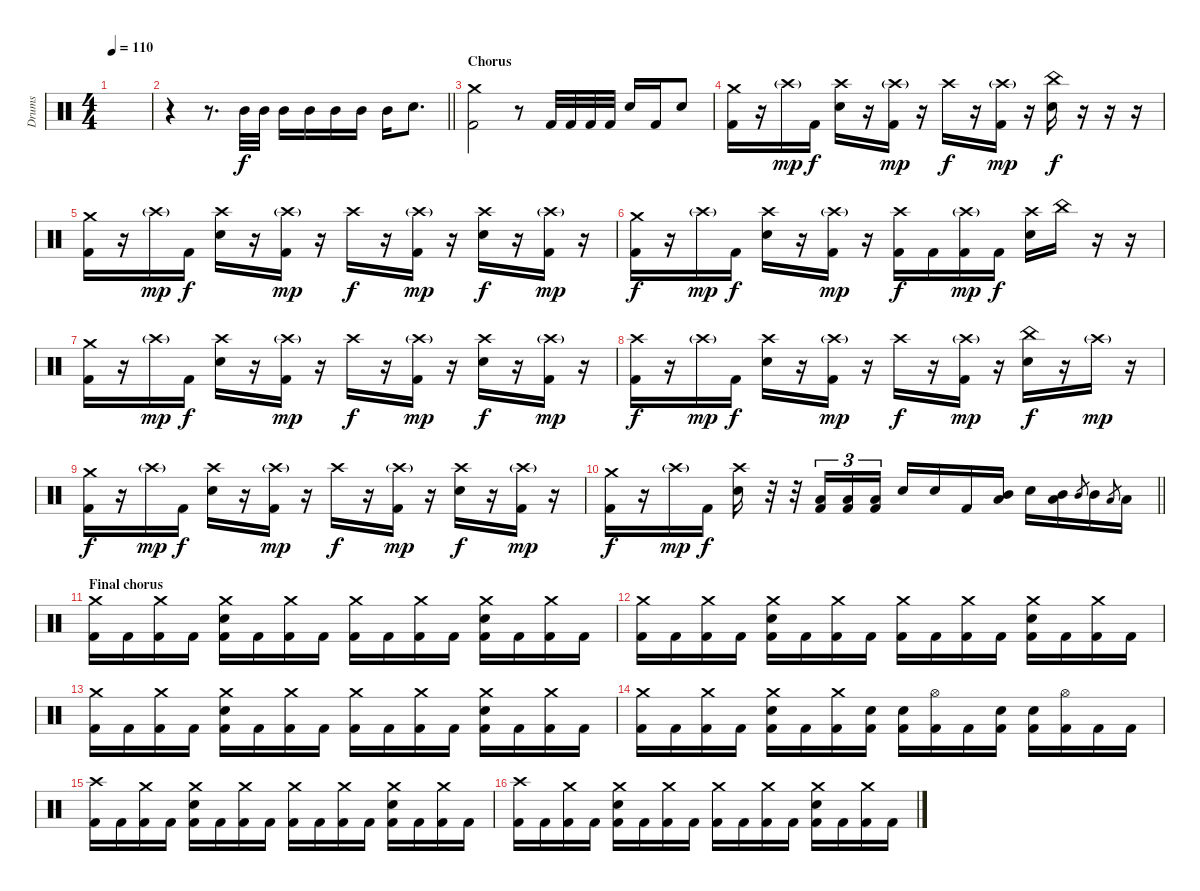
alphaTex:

\track ("Drums" "Drums") {instrument percussion}
\staff {score}
\articulation defaults
\ts (4 4)
\tempo 110
\clef neutral
\ks c
|
\barLineRight lightlight
r.4 r.8{d} "Mid Tom (hit)".32 "Mid Tom (hit)".32 "Mid Tom (hit)".16 "Mid Tom (hit)".16 "Mid Tom (hit)".16 "Mid Tom (hit)".16 "Mid Tom (hit)".16 "Electric Snare (hit)".8{d} |
\section ("" "Chorus")
("Crash medium (hit)" "Kick (hit) 2").2 r.8 "Kick (hit) 2".32 "Kick (hit) 2".32 "Kick (hit) 2".32 "Kick (hit) 2".32 "Electric Snare (hit)".16 "Kick (hit) 2".16 "Electric Snare (hit)".8 |
("Crash medium (hit)" "Kick (hit) 2").16 r.16 "Crash high (hit)"{g}.16{dy mp} "Kick (hit) 2".16{dy f} ("Electric Snare (hit)" "Crash high (hit)").16 r.16 ("Crash high (hit)"{g} "Kick (hit) 2").16{dy mp} r.16 "Crash high (hit)".16{dy f} r.16 ("Crash high (hit)"{g} "Kick (hit) 2").16{dy mp} r.16 ("Electric Snare (hit)" "China (hit)").16{dy f} r.16 r.16 r.16 |
("Crash medium (hit)" "Kick (hit) 2").16 r.16 "Crash high (hit)"{g}.16{dy mp} "Kick (hit) 2".16{dy f} ("Electric Snare (hit)" "Crash high (hit)").16 r.16 ("Crash high (hit)"{g} "Kick (hit) 2").16{dy mp} r.16 "Crash high (hit)".16{dy f} r.16 ("Crash high (hit)"{g} "Kick (hit) 2").16{dy mp} r.16 ("Electric Snare (hit)" "Crash high (hit)").16{dy f} r.16 ("Crash high (hit)"{g} "Kick (hit) 2").16{dy mp} r.16 |
("Crash medium (hit)" "Kick (hit) 2").16{dy f} r.16 "Crash high (hit)"{g}.16{dy mp} "Kick (hit) 2".16{dy f} ("Electric Snare (hit)" "Crash high (hit)").16 r.16 ("Crash high (hit)"{g} "Kick (hit) 2").16{dy mp} r.16 ("Kick (hit) 2" "Crash high (hit)").16{dy f} "Kick (hit) 2".16 ("Crash high (hit)"{g} "Kick (hit) 2").16{dy mp} "Kick (hit) 2".16{dy f} ("Electric Snare (hit)" "Crash high (hit)").16 "China (hit)".16 r.16 r.16 |
("Crash medium (hit)" "Kick (hit) 2").16 r.16 "Crash high (hit)"{g}.16{dy mp} "Kick (hit) 2".16{dy f} ("Electric Snare (hit)" "Crash high (hit)").16 r.16 ("Crash high (hit)"{g} "Kick (hit) 2").16{dy mp} r.16 "Crash high (hit)".16{dy f} r.16 ("Crash high (hit)"{g} "Kick (hit) 2").16{dy mp} r.16 ("Electric Snare (hit)" "Crash high (hit)").16{dy f} r.16 ("Crash high (hit)"{g} "Kick (hit) 2").16{dy mp} r.16 |
("Crash high (hit)" "Kick (hit) 2").16{dy f} r.16 "Crash high (hit)"{g}.16{dy mp} "Kick (hit) 2".16{dy f} ("Electric Snare (hit)" "Crash high (hit)").16 r.16 ("Crash high (hit)"{g} "Kick (hit) 2").16{dy mp} r.16 "Crash high (hit)".16{dy f} r.16 ("Crash high (hit)"{g} "Kick (hit) 2").16{dy mp} r.16 ("Electric Snare (hit)" "China (hit)").16{dy f} r.16 "Crash high (hit)"{g}.16{dy mp} r.16 |
("Crash medium (hit)" "Kick (hit) 2").16{dy f} r.16 "Crash high (hit)"{g}.16{dy mp} "Kick (hit) 2".16{dy f} ("Electric Snare (hit)" "Crash high (hit)").16 r.16 ("Crash high (hit)"{g} "Kick (hit) 2").16{dy mp} r.16 "Crash high (hit)".16{dy f} r.16 ("Crash high (hit)"{g} "Kick (hit) 2").16{dy mp} r.16 ("Electric Snare (hit)" "Crash high (hit)").16{dy f} r.16 ("Crash high (hit)"{g} "Kick (hit) 2").16{dy mp} r.16 |
\barLineRight lightlight
("Crash medium (hit)" "Kick (hit) 2").16{dy f} r.16 "Crash high (hit)"{g}.16{dy mp} "Kick (hit) 2".16{dy f} ("Electric Snare (hit)" "Crash high (hit)").16 r.32 r.32 ("Kick (hit) 2" "Low Tom (hit)").16{tu (3 2)} ("Kick (hit) 2" "Low Tom (hit)").16{tu (3 2)} ("Kick (hit) 2" "Low Tom (hit)").16{tu (3 2)} "Electric Snare (hit)".16 "Electric Snare (hit)".16 "Kick (hit) 2".16 ("Low Tom (hit)" "Mid Tom (hit)").16 "Electric Snare (hit)".16 ("Low Tom (hit)" "Mid Tom (hit)").16 "Mid Tom (hit)".8{gr} "Mid Tom (hit)".16 "Low Tom (hit)".8{gr} "Low Tom (hit)".16 |
\section ("" "Final chorus")
("Kick (hit) 2" "Crash medium (hit)").16 "Kick (hit) 2".16 ("Kick (hit) 2" "Crash medium (hit)").16 "Kick (hit) 2".16 ("Kick (hit) 2" "Electric Snare (hit)" "Crash medium (hit)").16 "Kick (hit) 2".16 ("Kick (hit) 2" "Crash medium (hit)").16 "Kick (hit) 2".16 ("Kick (hit) 2" "Crash medium (hit)").16 "Kick (hit) 2".16 ("Kick (hit) 2" "Crash medium (hit)").16 "Kick (hit) 2".16 ("Kick (hit) 2" "Electric Snare (hit)" "Crash medium (hit)").16 "Kick (hit) 2".16 ("Kick (hit) 2" "Crash medium (hit)").16 "Kick (hit) 2".16 |
("Kick (hit) 2" "Crash medium (hit)").16 "Kick (hit) 2".16 ("Kick (hit) 2" "Crash medium (hit)").16 "Kick (hit) 2".16 ("Kick (hit) 2" "Electric Snare (hit)" "Crash medium (hit)").16 "Kick (hit) 2".16 ("Kick (hit) 2" "Crash medium (hit)").16 "Kick (hit) 2".16 ("Kick (hit) 2" "Crash medium (hit)").16 "Kick (hit) 2".16 ("Kick (hit) 2" "Crash medium (hit)").16 "Kick (hit) 2".16 ("Kick (hit) 2" "Electric Snare (hit)" "Crash medium (hit)").16 "Kick (hit) 2".16 ("Kick (hit) 2" "Crash medium (hit)").16 "Kick (hit) 2".16 |
("Kick (hit) 2" "Crash medium (hit)").16 "Kick (hit) 2".16 ("Kick (hit) 2" "Crash medium (hit)").16 "Kick (hit) 2".16 ("Kick (hit) 2" "Electric Snare (hit)" "Crash medium (hit)").16 "Kick (hit) 2".16 ("Kick (hit) 2" "Crash medium (hit)").16 "Kick (hit) 2".16 ("Kick (hit) 2" "Crash medium (hit)").16 "Kick (hit) 2".16 ("Kick (hit) 2" "Crash medium (hit)").16 "Kick (hit) 2".16 ("Kick (hit) 2" "Electric Snare (hit)" "Crash medium (hit)").16 "Kick (hit) 2".16 ("Kick (hit) 2" "Crash medium (hit)").16 "Kick (hit) 2".16 |
("Kick (hit) 2" "Crash medium (hit)").16 "Kick (hit) 2".16 ("Kick (hit) 2" "Crash medium (hit)").16 "Kick (hit) 2".16 ("Kick (hit) 2" "Electric Snare (hit)" "Crash medium (hit)").16 "Kick (hit) 2".16 ("Kick (hit) 2" "Crash medium (hit)").16 ("Kick (hit) 2" "Electric Snare (hit)").16 ("Kick (hit) 2" "Electric Snare (hit)").16 ("Kick (hit) 2" "Hi-Hat (open)").16 "Kick (hit) 2".16 ("Kick (hit) 2" "Electric Snare (hit)").16 ("Kick (hit) 2" "Electric Snare (hit)").16 ("Kick (hit) 2" "Hi-Hat (open)").16 "Kick (hit) 2".16 "Kick (hit) 2".16 |
("Kick (hit) 2" "Crash high (hit)").16 "Kick (hit) 2".16 ("Kick (hit) 2" "Crash medium (hit)").16 "Kick (hit) 2".16 ("Kick (hit) 2" "Electric Snare (hit)" "Crash medium (hit)").16 "Kick (hit) 2".16 ("Kick (hit) 2" "Crash medium (hit)").16 "Kick (hit) 2".16 ("Kick (hit) 2" "Crash medium (hit)").16 "Kick (hit) 2".16 ("Kick (hit) 2" "Crash medium (hit)").16 "Kick (hit) 2".16 ("Kick (hit) 2" "Electric Snare (hit)" "Crash medium (hit)").16 "Kick (hit) 2".16 ("Kick (hit) 2" "Crash medium (hit)").16 "Kick (hit) 2".16 |
("Kick (hit) 2" "Crash high (hit)").16 "Kick (hit) 2".16 ("Kick (hit) 2" "Crash medium (hit)").16 "Kick (hit) 2".16 ("Kick (hit) 2" "Electric Snare (hit)" "Crash medium (hit)").16 "Kick (hit) 2".16 ("Kick (hit) 2" "Crash medium (hit)").16 "Kick (hit) 2".16 ("Kick (hit) 2" "Crash medium (hit)").16 "Kick (hit) 2".16 ("Kick (hit) 2" "Crash medium (hit)").16 "Kick (hit) 2".16 ("Kick (hit) 2" "Electric Snare (hit)" "Crash medium (hit)").16 "Kick (hit) 2".16 ("Kick (hit) 2" "Crash medium (hit)").16 "Kick (hit) 2".16
